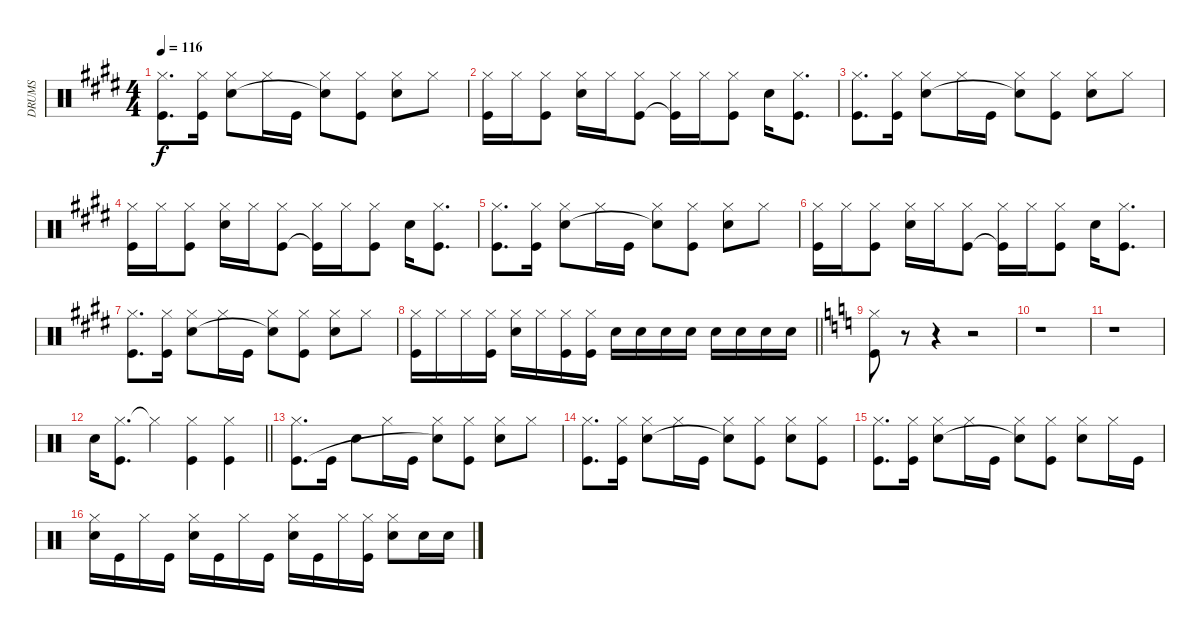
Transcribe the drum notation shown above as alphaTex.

\track ("DRUMS" "DRUMS") {instrument percussion}
\staff {score}
\articulation defaults
\ts (4 4)
\tempo 116
\clef neutral
\ks c#minor
("Hi-Hat (closed)" "Kick (hit)").8{d dy f} ("Hi-Hat (closed)" "Kick (hit)").16 ("Hi-Hat (closed)" "Snare (hit) 2").8 "Hi-Hat (closed)".16 "Kick (hit)".16 ("Hi-Hat (closed)" "Snare (hit)"{t}).8 ("Hi-Hat (closed)" "Kick (hit)").8 ("Hi-Hat (closed)" "Snare (hit) 2").8 "Hi-Hat (closed)".8 |
("Hi-Hat (closed)" "Kick (hit)").16 "Hi-Hat (closed)".16 ("Hi-Hat (closed)" "Kick (hit)").8 ("Hi-Hat (closed)" "Snare (hit) 2").16 "Hi-Hat (closed)".16 ("Hi-Hat (closed)" "Kick (hit)").8 ("Hi-Hat (closed)" "Kick (hit)"{t}).16 "Hi-Hat (closed)".16 ("Hi-Hat (closed)" "Kick (hit)").8 "Snare (hit) 2".16 ("Hi-Hat (closed)" "Kick (hit)").8{d} |
("Hi-Hat (closed)" "Kick (hit)").8{d} ("Hi-Hat (closed)" "Kick (hit)").16 ("Hi-Hat (closed)" "Snare (hit) 2").8 "Hi-Hat (closed)".16 "Kick (hit)".16 ("Hi-Hat (closed)" "Snare (hit)"{t}).8 ("Hi-Hat (closed)" "Kick (hit)").8 ("Hi-Hat (closed)" "Snare (hit) 2").8 "Hi-Hat (closed)".8 |
("Hi-Hat (closed)" "Kick (hit)").16 "Hi-Hat (closed)".16 ("Hi-Hat (closed)" "Kick (hit)").8 ("Hi-Hat (closed)" "Snare (hit) 2").16 "Hi-Hat (closed)".16 ("Hi-Hat (closed)" "Kick (hit)").8 ("Hi-Hat (closed)" "Kick (hit)"{t}).16 "Hi-Hat (closed)".16 ("Hi-Hat (closed)" "Kick (hit)").8 "Snare (hit) 2".16 ("Hi-Hat (closed)" "Kick (hit)").8{d} |
("Hi-Hat (closed)" "Kick (hit)").8{d} ("Hi-Hat (closed)" "Kick (hit)").16 ("Hi-Hat (closed)" "Snare (hit) 2").8 "Hi-Hat (closed)".16 "Kick (hit)".16 ("Hi-Hat (closed)" "Snare (hit)"{t}).8 ("Hi-Hat (closed)" "Kick (hit)").8 ("Hi-Hat (closed)" "Snare (hit) 2").8 "Hi-Hat (closed)".8 |
("Hi-Hat (closed)" "Kick (hit)").16 "Hi-Hat (closed)".16 ("Hi-Hat (closed)" "Kick (hit)").8 ("Hi-Hat (closed)" "Snare (hit) 2").16 "Hi-Hat (closed)".16 ("Hi-Hat (closed)" "Kick (hit)").8 ("Hi-Hat (closed)" "Kick (hit)"{t}).16 "Hi-Hat (closed)".16 ("Hi-Hat (closed)" "Kick (hit)").8 "Snare (hit) 2".16 ("Hi-Hat (closed)" "Kick (hit)").8{d} |
("Hi-Hat (closed)" "Kick (hit)").8{d} ("Hi-Hat (closed)" "Kick (hit)").16 ("Hi-Hat (closed)" "Snare (hit) 2").8 "Hi-Hat (closed)".16 "Kick (hit)".16 ("Hi-Hat (closed)" "Snare (hit)"{t}).8 ("Hi-Hat (closed)" "Kick (hit)").8 ("Hi-Hat (closed)" "Snare (hit) 2").8 "Hi-Hat (closed)".8 |
\barLineRight lightlight
("Hi-Hat (closed)" "Kick (hit)").16 "Hi-Hat (closed)".16 "Hi-Hat (closed)".16 ("Hi-Hat (closed)" "Kick (hit)").16 ("Hi-Hat (closed)" "Snare (hit) 2").16 "Hi-Hat (closed)".16 ("Hi-Hat (closed)" "Kick (hit)").16 ("Hi-Hat (closed)" "Kick (hit)").16 "Snare (hit) 2".16 "Snare (hit) 2".16 "Snare (hit) 2".16 "Snare (hit) 2".16 "Snare (hit) 2".16 "Snare (hit) 2".16 "Snare (hit) 2".16 "Snare (hit) 2".16 |
\ks c
("Hi-Hat (closed)" "Kick (hit)").8 r.8 r.4 r.2 |
r.1 |
r.1 |
\barLineRight lightlight "Snare (hit) 2".16
("Hi-Hat (closed)" "Kick (hit)").8{d} "Hi-Hat (closed)"{t}.4 ("Hi-Hat (closed)" "Kick (hit)").4 ("Hi-Hat (closed)" "Kick (hit)").4 |
("Hi-Hat (closed)" "Kick (hit)").8{d} "Kick (hit)".16 "Snare (hit) 2".8 "Hi-Hat (closed)".16 "Kick (hit)".16 ("Hi-Hat (closed)" "Snare (hit)"{t}).8 ("Hi-Hat (closed)" "Kick (hit)").8 ("Hi-Hat (closed)" "Snare (hit) 2").8 "Hi-Hat (closed)".8 |
("Hi-Hat (closed)" "Kick (hit)").8{d} ("Hi-Hat (closed)" "Kick (hit)").16 ("Hi-Hat (closed)" "Snare (hit) 2").8 "Hi-Hat (closed)".16 "Kick (hit)".16 ("Hi-Hat (closed)" "Snare (hit)"{t}).8 ("Hi-Hat (closed)" "Kick (hit)").8 ("Hi-Hat (closed)" "Snare (hit) 2").8 ("Hi-Hat (closed)" "Kick (hit)").8 |
("Hi-Hat (closed)" "Kick (hit)").8{d} ("Hi-Hat (closed)" "Kick (hit)").16 ("Hi-Hat (closed)" "Snare (hit) 2").8 "Hi-Hat (closed)".16 "Kick (hit)".16 ("Hi-Hat (closed)" "Snare (hit)"{t}).8 ("Hi-Hat (closed)" "Kick (hit)").8 ("Hi-Hat (closed)" "Snare (hit) 2").8 "Hi-Hat (closed)".16 "Kick (hit)".16 |
("Hi-Hat (closed)" "Snare (hit) 2").16 "Kick (hit)".16 "Hi-Hat (closed)".16 "Kick (hit)".16 ("Hi-Hat (closed)" "Snare (hit) 2").16 "Kick (hit)".16 "Hi-Hat (closed)".16 "Kick (hit)".16 ("Hi-Hat (closed)" "Snare (hit) 2").16 "Kick (hit)".16 "Hi-Hat (closed)".16 ("Hi-Hat (closed)" "Kick (hit)").16 ("Hi-Hat (closed)" "Snare (hit) 2").8 "Snare (hit) 2".16 "Snare (hit) 2".16
